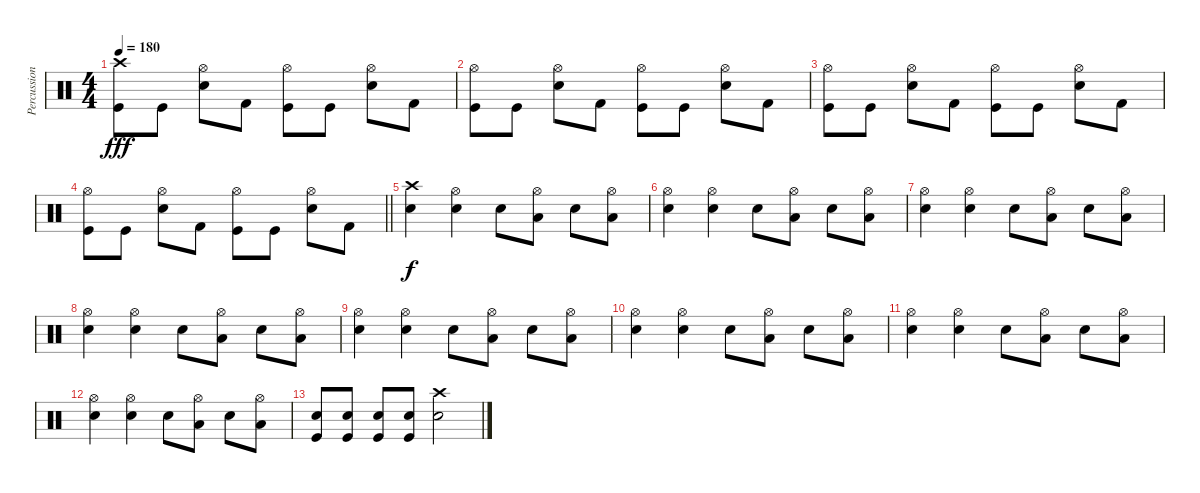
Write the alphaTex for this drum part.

\track ("Percussions" "Percussion") {instrument percussion}
\staff {score}
\articulation defaults
\ts (4 4)
\tempo 180
\clef neutral
\ks c
("Crash high (hit)" "Kick (hit)").8{dy fff} "Kick (hit)".8 ("Hi-Hat (open)" "Electric Snare (hit)").8 "Kick (hit) 2".8 ("Hi-Hat (open)" "Kick (hit)").8 "Kick (hit)".8 ("Hi-Hat (open)" "Electric Snare (hit)").8 "Kick (hit) 2".8 |
("Hi-Hat (open)" "Kick (hit)").8 "Kick (hit)".8 ("Hi-Hat (open)" "Electric Snare (hit)").8 "Kick (hit) 2".8 ("Hi-Hat (open)" "Kick (hit)").8 "Kick (hit)".8 ("Hi-Hat (open)" "Electric Snare (hit)").8 "Kick (hit) 2".8 |
("Hi-Hat (open)" "Kick (hit)").8 "Kick (hit)".8 ("Hi-Hat (open)" "Electric Snare (hit)").8 "Kick (hit) 2".8 ("Hi-Hat (open)" "Kick (hit)").8 "Kick (hit)".8 ("Hi-Hat (open)" "Electric Snare (hit)").8 "Kick (hit) 2".8 |
\barLineRight lightlight
("Hi-Hat (open)" "Kick (hit)").8 "Kick (hit)".8 ("Hi-Hat (open)" "Electric Snare (hit)").8 "Kick (hit) 2".8 ("Hi-Hat (open)" "Kick (hit)").8 "Kick (hit)".8 ("Hi-Hat (open)" "Electric Snare (hit)").8 "Kick (hit) 2".8 |
("Crash high (hit)" "Electric Snare (hit)").4{dy f} ("Hi-Hat (open)" "Electric Snare (hit)").4 "Electric Snare (hit)".8 ("Hi-Hat (open)" "Low Tom (hit)").8 "Electric Snare (hit)".8 ("Hi-Hat (open)" "Low Tom (hit)").8 |
("Hi-Hat (open)" "Electric Snare (hit)").4 ("Hi-Hat (open)" "Electric Snare (hit)").4 "Electric Snare (hit)".8 ("Hi-Hat (open)" "Low Tom (hit)").8 "Electric Snare (hit)".8 ("Hi-Hat (open)" "Low Tom (hit)").8 |
("Hi-Hat (open)" "Electric Snare (hit)").4 ("Hi-Hat (open)" "Electric Snare (hit)").4 "Electric Snare (hit)".8 ("Hi-Hat (open)" "Low Tom (hit)").8 "Electric Snare (hit)".8 ("Hi-Hat (open)" "Low Tom (hit)").8 |
("Hi-Hat (open)" "Electric Snare (hit)").4 ("Hi-Hat (open)" "Electric Snare (hit)").4 "Electric Snare (hit)".8 ("Hi-Hat (open)" "Low Tom (hit)").8 "Electric Snare (hit)".8 ("Hi-Hat (open)" "Low Tom (hit)").8 |
("Hi-Hat (open)" "Electric Snare (hit)").4 ("Hi-Hat (open)" "Electric Snare (hit)").4 "Electric Snare (hit)".8 ("Hi-Hat (open)" "Low Tom (hit)").8 "Electric Snare (hit)".8 ("Hi-Hat (open)" "Low Tom (hit)").8 |
("Hi-Hat (open)" "Electric Snare (hit)").4 ("Hi-Hat (open)" "Electric Snare (hit)").4 "Electric Snare (hit)".8 ("Hi-Hat (open)" "Low Tom (hit)").8 "Electric Snare (hit)".8 ("Hi-Hat (open)" "Low Tom (hit)").8 |
("Hi-Hat (open)" "Electric Snare (hit)").4 ("Hi-Hat (open)" "Electric Snare (hit)").4 "Electric Snare (hit)".8 ("Hi-Hat (open)" "Low Tom (hit)").8 "Electric Snare (hit)".8 ("Hi-Hat (open)" "Low Tom (hit)").8 |
("Hi-Hat (open)" "Electric Snare (hit)").4 ("Hi-Hat (open)" "Electric Snare (hit)").4 "Electric Snare (hit)".8 ("Hi-Hat (open)" "Low Tom (hit)").8 "Electric Snare (hit)".8 ("Hi-Hat (open)" "Low Tom (hit)").8 |
("Electric Snare (hit)" "Kick (hit)").8 ("Electric Snare (hit)" "Kick (hit)").8 ("Electric Snare (hit)" "Kick (hit)").8 ("Electric Snare (hit)" "Kick (hit)").8 ("Crash high (hit)" "Electric Snare (hit)").2
